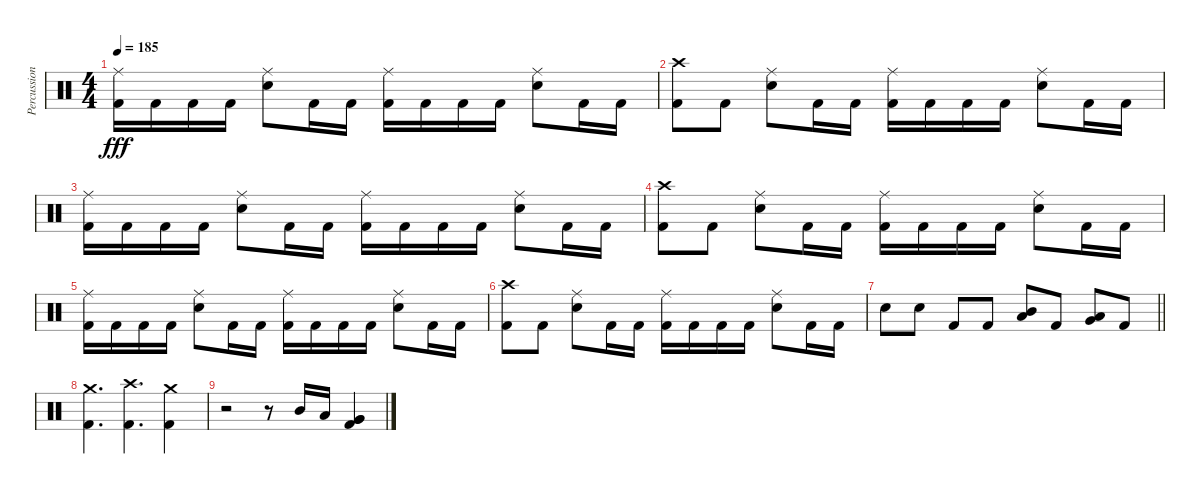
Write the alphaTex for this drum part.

\track ("Percussion" "Percussion") {instrument percussion}
\staff {score}
\articulation defaults
\ts (4 4)
\tempo 185
\clef neutral
\ks c
("Ride (middle)" "Kick (hit) 2").16{dy fff} "Kick (hit) 2".16 "Kick (hit) 2".16 "Kick (hit) 2".16 ("Ride (middle)" "Electric Snare (hit)").8 "Kick (hit) 2".16 "Kick (hit) 2".16 ("Ride (middle)" "Kick (hit) 2").16 "Kick (hit) 2".16 "Kick (hit) 2".16 "Kick (hit) 2".16 ("Ride (middle)" "Electric Snare (hit)").8 "Kick (hit) 2".16 "Kick (hit) 2".16 |
("Crash high (hit)" "Kick (hit) 2").8 "Kick (hit) 2".8 ("Ride (middle)" "Electric Snare (hit)").8 "Kick (hit) 2".16 "Kick (hit) 2".16 ("Ride (middle)" "Kick (hit) 2").16 "Kick (hit) 2".16 "Kick (hit) 2".16 "Kick (hit) 2".16 ("Ride (middle)" "Electric Snare (hit)").8 "Kick (hit) 2".16 "Kick (hit) 2".16 |
("Ride (middle)" "Kick (hit) 2").16 "Kick (hit) 2".16 "Kick (hit) 2".16 "Kick (hit) 2".16 ("Ride (middle)" "Electric Snare (hit)").8 "Kick (hit) 2".16 "Kick (hit) 2".16 ("Ride (middle)" "Kick (hit) 2").16 "Kick (hit) 2".16 "Kick (hit) 2".16 "Kick (hit) 2".16 ("Ride (middle)" "Electric Snare (hit)").8 "Kick (hit) 2".16 "Kick (hit) 2".16 |
("Crash high (hit)" "Kick (hit) 2").8 "Kick (hit) 2".8 ("Ride (middle)" "Electric Snare (hit)").8 "Kick (hit) 2".16 "Kick (hit) 2".16 ("Ride (middle)" "Kick (hit) 2").16 "Kick (hit) 2".16 "Kick (hit) 2".16 "Kick (hit) 2".16 ("Ride (middle)" "Electric Snare (hit)").8 "Kick (hit) 2".16 "Kick (hit) 2".16 |
("Ride (middle)" "Kick (hit) 2").16 "Kick (hit) 2".16 "Kick (hit) 2".16 "Kick (hit) 2".16 ("Ride (middle)" "Electric Snare (hit)").8 "Kick (hit) 2".16 "Kick (hit) 2".16 ("Ride (middle)" "Kick (hit) 2").16 "Kick (hit) 2".16 "Kick (hit) 2".16 "Kick (hit) 2".16 ("Ride (middle)" "Electric Snare (hit)").8 "Kick (hit) 2".16 "Kick (hit) 2".16 |
("Crash high (hit)" "Kick (hit) 2").8 "Kick (hit) 2".8 ("Ride (middle)" "Electric Snare (hit)").8 "Kick (hit) 2".16 "Kick (hit) 2".16 ("Ride (middle)" "Kick (hit) 2").16 "Kick (hit) 2".16 "Kick (hit) 2".16 "Kick (hit) 2".16 ("Ride (middle)" "Electric Snare (hit)").8 "Kick (hit) 2".16 "Kick (hit) 2".16 |
\barLineRight lightlight "Electric Snare (hit)".8 "Electric Snare (hit)".8 "Kick (hit) 2".8 "Kick (hit) 2".8
("Mid Tom (hit)" "Low Tom (hit)").8 "Kick (hit) 2".8 ("Low Tom (hit)" "Very Low Tom (hit)").8 "Kick (hit) 2".8 |
("Crash medium (hit)" "Kick (hit) 2").4{d} ("Crash high (hit)" "Kick (hit) 2").4{d} ("Crash medium (hit)" "Kick (hit) 2").4 |
r.2 r.8 "Mid Tom (hit)".16 "Low Tom (hit)".16 ("Very Low Tom (hit)" "Very Low Tom (hit)" "Kick (hit) 2").4
